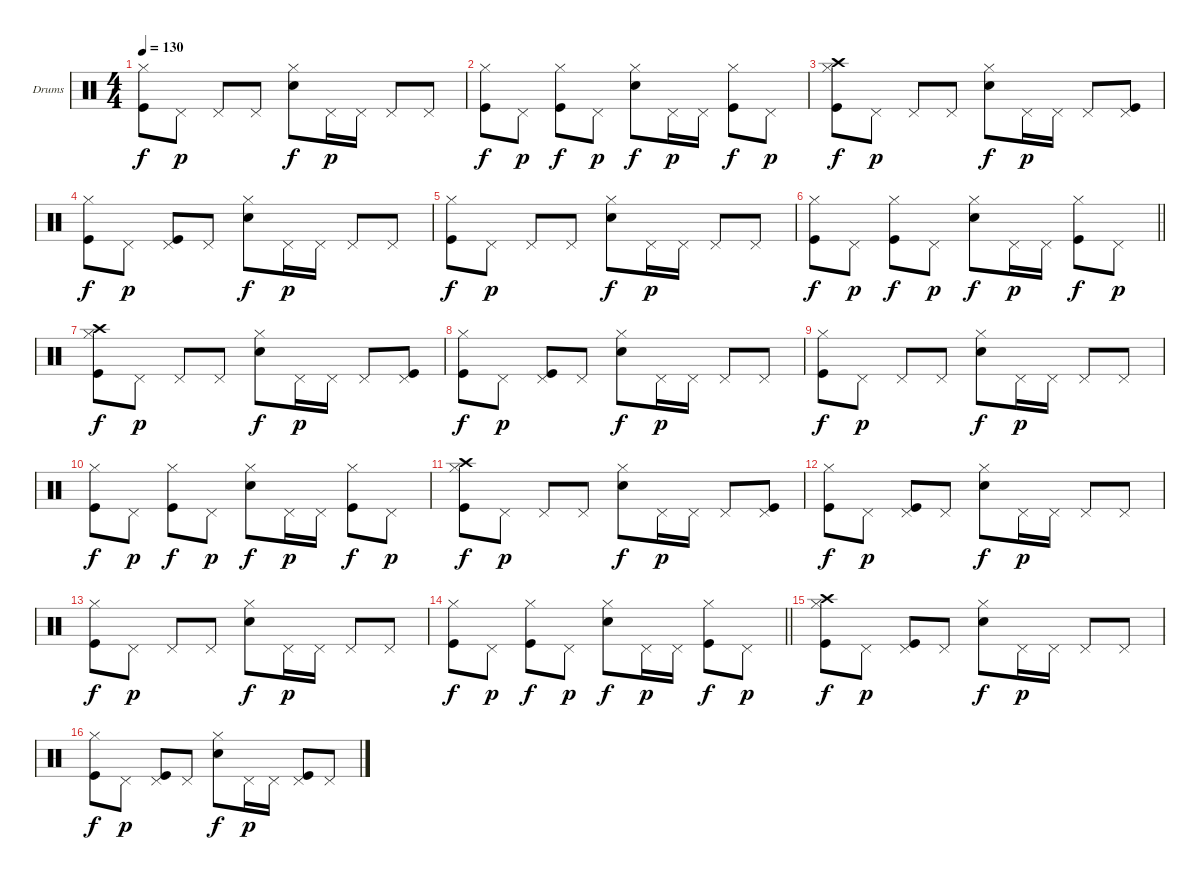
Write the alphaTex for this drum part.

\bracketExtendMode groupsimilarinstruments
\firstSystemTrackNameOrientation horizontal
\otherSystemsTrackNameOrientation horizontal
\track ("Drumkit" "Drums") {instrument percussion}
\staff {score}
\articulation defaults
\ts (4 4)
\tempo 130
\clef neutral
\ks c
("Hi-Hat (closed)" "Kick (hit)").8{dy f} "Pedal Hi-Hat (hit)".8{dy p} "Pedal Hi-Hat (hit)".8 "Pedal Hi-Hat (hit)".8 ("Snare (hit) 2" "Hi-Hat (closed)").8{dy f} "Pedal Hi-Hat (hit)".16{dy p} "Pedal Hi-Hat (hit)".16 "Pedal Hi-Hat (hit)".8 "Pedal Hi-Hat (hit)".8 |
("Kick (hit)" "Hi-Hat (closed)").8{dy f} "Pedal Hi-Hat (hit)".8{dy p} ("Kick (hit)" "Hi-Hat (closed)").8{dy f} "Pedal Hi-Hat (hit)".8{dy p} ("Hi-Hat (closed)" "Snare (hit) 2").8{dy f} "Pedal Hi-Hat (hit)".16{dy p} "Pedal Hi-Hat (hit)".16 ("Kick (hit)" "Hi-Hat (closed)").8{dy f} "Pedal Hi-Hat (hit)".8{dy p} |
("Hi-Hat (closed)" "Kick (hit)" "Crash high (hit)").8{dy f} "Pedal Hi-Hat (hit)".8{dy p} "Pedal Hi-Hat (hit)".8 "Pedal Hi-Hat (hit)".8 ("Snare (hit) 2" "Hi-Hat (closed)").8{dy f} "Pedal Hi-Hat (hit)".16{dy p} "Pedal Hi-Hat (hit)".16 "Pedal Hi-Hat (hit)".8 ("Pedal Hi-Hat (hit)" "Kick (hit)").8 |
("Kick (hit)" "Hi-Hat (closed)").8{dy f} "Pedal Hi-Hat (hit)".8{dy p} ("Pedal Hi-Hat (hit)" "Kick (hit)").8 "Pedal Hi-Hat (hit)".8 ("Snare (hit) 2" "Hi-Hat (closed)").8{dy f} "Pedal Hi-Hat (hit)".16{dy p} "Pedal Hi-Hat (hit)".16 "Pedal Hi-Hat (hit)".8 "Pedal Hi-Hat (hit)".8 |
("Hi-Hat (closed)" "Kick (hit)").8{dy f} "Pedal Hi-Hat (hit)".8{dy p} "Pedal Hi-Hat (hit)".8 "Pedal Hi-Hat (hit)".8 ("Snare (hit) 2" "Hi-Hat (closed)").8{dy f} "Pedal Hi-Hat (hit)".16{dy p} "Pedal Hi-Hat (hit)".16 "Pedal Hi-Hat (hit)".8 "Pedal Hi-Hat (hit)".8 |
\barLineRight lightlight
("Kick (hit)" "Hi-Hat (closed)").8{dy f} "Pedal Hi-Hat (hit)".8{dy p} ("Kick (hit)" "Hi-Hat (closed)").8{dy f} "Pedal Hi-Hat (hit)".8{dy p} ("Hi-Hat (closed)" "Snare (hit) 2").8{dy f} "Pedal Hi-Hat (hit)".16{dy p} "Pedal Hi-Hat (hit)".16 ("Kick (hit)" "Hi-Hat (closed)").8{dy f} "Pedal Hi-Hat (hit)".8{dy p} |
("Hi-Hat (closed)" "Kick (hit)" "Crash high (hit)").8{dy f} "Pedal Hi-Hat (hit)".8{dy p} "Pedal Hi-Hat (hit)".8 "Pedal Hi-Hat (hit)".8 ("Snare (hit) 2" "Hi-Hat (closed)").8{dy f} "Pedal Hi-Hat (hit)".16{dy p} "Pedal Hi-Hat (hit)".16 "Pedal Hi-Hat (hit)".8 ("Pedal Hi-Hat (hit)" "Kick (hit)").8 |
("Kick (hit)" "Hi-Hat (closed)").8{dy f} "Pedal Hi-Hat (hit)".8{dy p} ("Pedal Hi-Hat (hit)" "Kick (hit)").8 "Pedal Hi-Hat (hit)".8 ("Snare (hit) 2" "Hi-Hat (closed)").8{dy f} "Pedal Hi-Hat (hit)".16{dy p} "Pedal Hi-Hat (hit)".16 "Pedal Hi-Hat (hit)".8 "Pedal Hi-Hat (hit)".8 |
("Hi-Hat (closed)" "Kick (hit)").8{dy f} "Pedal Hi-Hat (hit)".8{dy p} "Pedal Hi-Hat (hit)".8 "Pedal Hi-Hat (hit)".8 ("Snare (hit) 2" "Hi-Hat (closed)").8{dy f} "Pedal Hi-Hat (hit)".16{dy p} "Pedal Hi-Hat (hit)".16 "Pedal Hi-Hat (hit)".8 "Pedal Hi-Hat (hit)".8 |
("Kick (hit)" "Hi-Hat (closed)").8{dy f} "Pedal Hi-Hat (hit)".8{dy p} ("Kick (hit)" "Hi-Hat (closed)").8{dy f} "Pedal Hi-Hat (hit)".8{dy p} ("Hi-Hat (closed)" "Snare (hit) 2").8{dy f} "Pedal Hi-Hat (hit)".16{dy p} "Pedal Hi-Hat (hit)".16 ("Kick (hit)" "Hi-Hat (closed)").8{dy f} "Pedal Hi-Hat (hit)".8{dy p} |
("Hi-Hat (closed)" "Kick (hit)" "Crash high (hit)").8{dy f} "Pedal Hi-Hat (hit)".8{dy p} "Pedal Hi-Hat (hit)".8 "Pedal Hi-Hat (hit)".8 ("Snare (hit) 2" "Hi-Hat (closed)").8{dy f} "Pedal Hi-Hat (hit)".16{dy p} "Pedal Hi-Hat (hit)".16 "Pedal Hi-Hat (hit)".8 ("Pedal Hi-Hat (hit)" "Kick (hit)").8 |
("Kick (hit)" "Hi-Hat (closed)").8{dy f} "Pedal Hi-Hat (hit)".8{dy p} ("Pedal Hi-Hat (hit)" "Kick (hit)").8 "Pedal Hi-Hat (hit)".8 ("Snare (hit) 2" "Hi-Hat (closed)").8{dy f} "Pedal Hi-Hat (hit)".16{dy p} "Pedal Hi-Hat (hit)".16 "Pedal Hi-Hat (hit)".8 "Pedal Hi-Hat (hit)".8 |
("Hi-Hat (closed)" "Kick (hit)").8{dy f} "Pedal Hi-Hat (hit)".8{dy p} "Pedal Hi-Hat (hit)".8 "Pedal Hi-Hat (hit)".8 ("Snare (hit) 2" "Hi-Hat (closed)").8{dy f} "Pedal Hi-Hat (hit)".16{dy p} "Pedal Hi-Hat (hit)".16 "Pedal Hi-Hat (hit)".8 "Pedal Hi-Hat (hit)".8 |
\barLineRight lightlight
("Kick (hit)" "Hi-Hat (closed)").8{dy f} "Pedal Hi-Hat (hit)".8{dy p} ("Kick (hit)" "Hi-Hat (closed)").8{dy f} "Pedal Hi-Hat (hit)".8{dy p} ("Hi-Hat (closed)" "Snare (hit) 2").8{dy f} "Pedal Hi-Hat (hit)".16{dy p} "Pedal Hi-Hat (hit)".16 ("Kick (hit)" "Hi-Hat (closed)").8{dy f} "Pedal Hi-Hat (hit)".8{dy p} |
\section ("" "")
("Hi-Hat (closed)" "Kick (hit)" "Crash high (hit)").8{dy f} "Pedal Hi-Hat (hit)".8{dy p} ("Pedal Hi-Hat (hit)" "Kick (hit)").8 "Pedal Hi-Hat (hit)".8 ("Snare (hit) 2" "Hi-Hat (closed)").8{dy f} "Pedal Hi-Hat (hit)".16{dy p} "Pedal Hi-Hat (hit)".16 "Pedal Hi-Hat (hit)".8 "Pedal Hi-Hat (hit)".8 |
("Kick (hit)" "Hi-Hat (closed)").8{dy f} "Pedal Hi-Hat (hit)".8{dy p} ("Pedal Hi-Hat (hit)" "Kick (hit)").8 "Pedal Hi-Hat (hit)".8 ("Snare (hit) 2" "Hi-Hat (closed)").8{dy f} "Pedal Hi-Hat (hit)".16{dy p} "Pedal Hi-Hat (hit)".16 ("Pedal Hi-Hat (hit)" "Kick (hit)").8 "Pedal Hi-Hat (hit)".8
